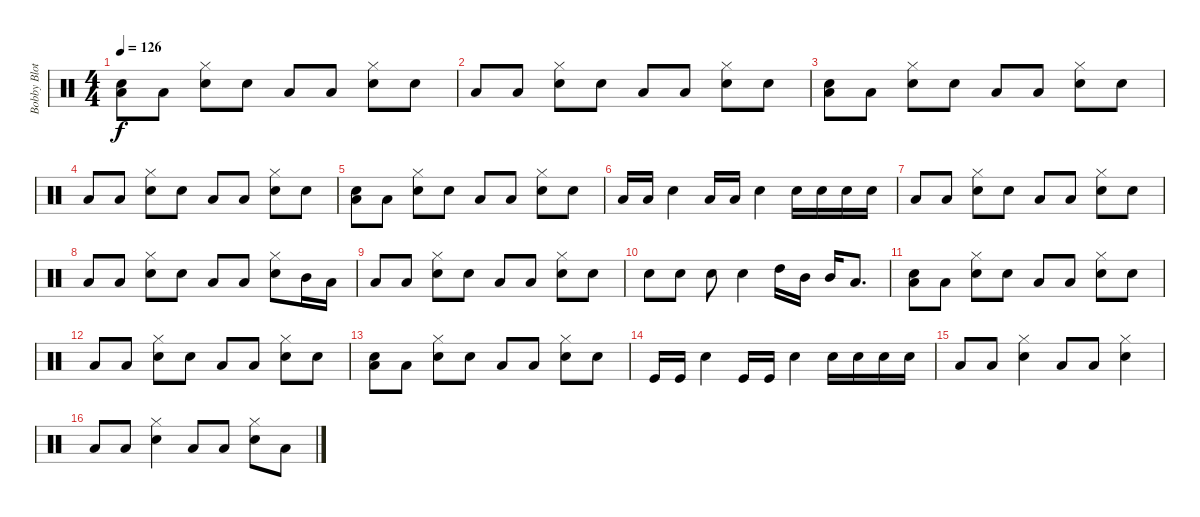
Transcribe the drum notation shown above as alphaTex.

\track ("Bobby Blotzer" "Bobby Blot") {instrument percussion}
\staff {score}
\articulation defaults
\ts (4 4)
\tempo 126
\clef neutral
\ks c
("Snare (hit) 2" "Low Floor Tom (hit)").8{dy f} "Low Floor Tom (hit)".8 ("Hi-Hat (closed)" "Snare (hit) 2").8 "Snare (hit) 2".8 "Low Floor Tom (hit)".8 "Low Floor Tom (hit)".8 ("Hi-Hat (closed)" "Snare (hit) 2").8 "Snare (hit) 2".8 |
"Low Floor Tom (hit)".8 "Low Floor Tom (hit)".8 ("Hi-Hat (closed)" "Snare (hit) 2").8 "Snare (hit) 2".8 "Low Floor Tom (hit)".8 "Low Floor Tom (hit)".8 ("Hi-Hat (closed)" "Snare (hit) 2").8 "Snare (hit) 2".8 |
("Snare (hit) 2" "Low Floor Tom (hit)").8 "Low Floor Tom (hit)".8 ("Hi-Hat (closed)" "Snare (hit) 2").8 "Snare (hit) 2".8 "Low Floor Tom (hit)".8 "Low Floor Tom (hit)".8 ("Hi-Hat (closed)" "Snare (hit) 2").8 "Snare (hit) 2".8 |
"Low Floor Tom (hit)".8 "Low Floor Tom (hit)".8 ("Hi-Hat (closed)" "Snare (hit) 2").8 "Snare (hit) 2".8 "Low Floor Tom (hit)".8 "Low Floor Tom (hit)".8 ("Hi-Hat (closed)" "Snare (hit) 2").8 "Snare (hit) 2".8 |
("Snare (hit) 2" "Low Floor Tom (hit)").8 "Low Floor Tom (hit)".8 ("Hi-Hat (closed)" "Snare (hit) 2").8 "Snare (hit) 2".8 "Low Floor Tom (hit)".8 "Low Floor Tom (hit)".8 ("Hi-Hat (closed)" "Snare (hit) 2").8 "Snare (hit) 2".8 |
"Low Floor Tom (hit)".16 "Low Floor Tom (hit)".16 "Snare (hit) 2".4 "Low Floor Tom (hit)".16 "Low Floor Tom (hit)".16 "Snare (hit) 2".4 "Snare (hit) 2".16 "Snare (hit) 2".16 "Snare (hit) 2".16 "Snare (hit) 2".16 |
"Low Floor Tom (hit)".8 "Low Floor Tom (hit)".8 ("Hi-Hat (closed)" "Snare (hit) 2").8 "Snare (hit) 2".8 "Low Floor Tom (hit)".8 "Low Floor Tom (hit)".8 ("Hi-Hat (closed)" "Snare (hit) 2").8 "Snare (hit) 2".8 |
"Low Floor Tom (hit)".8 "Low Floor Tom (hit)".8 ("Hi-Hat (closed)" "Snare (hit) 2").8 "Snare (hit) 2".8 "Low Floor Tom (hit)".8 "Low Floor Tom (hit)".8 ("Hi-Hat (closed)" "Snare (hit) 2").8 "Mid Tom (hit)".16 "Low Tom (hit)".16 |
"Low Floor Tom (hit)".8 "Low Floor Tom (hit)".8 ("Hi-Hat (closed)" "Snare (hit) 2").8 "Snare (hit) 2".8 "Low Floor Tom (hit)".8 "Low Floor Tom (hit)".8 ("Hi-Hat (closed)" "Snare (hit) 2").8 "Snare (hit) 2".8 |
"Snare (hit) 2".8 "Snare (hit) 2".8 "Snare (hit) 2".8 "Snare (hit) 2".4 "High Tom (hit)".16 "Mid Tom (hit)".16 "Mid Tom (hit)".16 "Low Tom (hit)".8{d} |
("Snare (hit) 2" "Low Floor Tom (hit)").8 "Low Floor Tom (hit)".8 ("Hi-Hat (closed)" "Snare (hit) 2").8 "Snare (hit) 2".8 "Low Floor Tom (hit)".8 "Low Floor Tom (hit)".8 ("Hi-Hat (closed)" "Snare (hit) 2").8 "Snare (hit) 2".8 |
"Low Floor Tom (hit)".8 "Low Floor Tom (hit)".8 ("Hi-Hat (closed)" "Snare (hit) 2").8 "Snare (hit) 2".8 "Low Floor Tom (hit)".8 "Low Floor Tom (hit)".8 ("Hi-Hat (closed)" "Snare (hit) 2").8 "Snare (hit) 2".8 |
("Snare (hit) 2" "Low Floor Tom (hit)").8 "Low Floor Tom (hit)".8 ("Hi-Hat (closed)" "Snare (hit) 2").8 "Snare (hit) 2".8 "Low Floor Tom (hit)".8 "Low Floor Tom (hit)".8 ("Hi-Hat (closed)" "Snare (hit) 2").8 "Snare (hit) 2".8 |
"Kick (hit)".16 "Kick (hit)".16 "Snare (hit) 2".4 "Kick (hit)".16 "Kick (hit)".16 "Snare (hit) 2".4 "Snare (hit) 2".16 "Snare (hit) 2".16 "Snare (hit) 2".16 "Snare (hit) 2".16 |
"Low Floor Tom (hit)".8{volume 13} "Low Floor Tom (hit)".8 ("Hi-Hat (closed)" "Snare (hit) 2").4 "Low Floor Tom (hit)".8 "Low Floor Tom (hit)".8 ("Hi-Hat (closed)" "Snare (hit) 2").4 |
"Low Floor Tom (hit)".8 "Low Floor Tom (hit)".8 ("Hi-Hat (closed)" "Snare (hit) 2").4 "Low Floor Tom (hit)".8 "Low Floor Tom (hit)".8 ("Hi-Hat (closed)" "Snare (hit) 2").8 "Low Floor Tom (hit)".8
